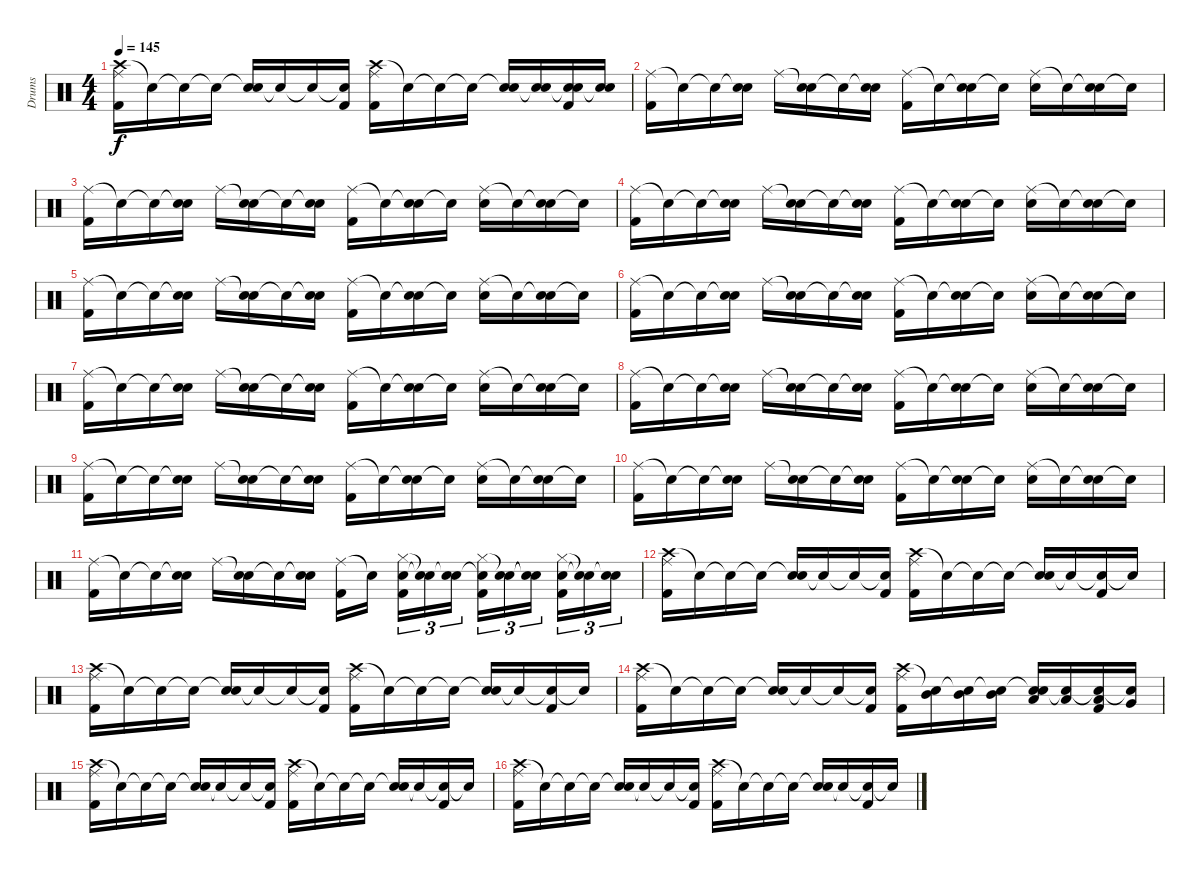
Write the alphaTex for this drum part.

\track ("Drums" "Drums") {instrument percussion}
\staff {score}
\articulation defaults
\ts (4 4)
\tempo 145
\clef neutral
\ks c
("Crash high (hit)" "Ride (middle)" "Kick (hit) 2").16{dy f} "Snare (hit)"{t}.16 "Snare (hit)"{t}.16 "Snare (hit)"{t}.16 ("Snare (hit)"{t} "Electric Snare (hit)").16 "Snare (hit)"{t}.16 "Snare (hit)"{t}.16 ("Snare (hit)"{t} "Kick (hit) 2").16 ("Crash high (hit)" "Ride (middle)" "Kick (hit) 2").16 "Snare (hit)"{t}.16 "Snare (hit)"{t}.16 "Snare (hit)"{t}.16 ("Snare (hit)"{t} "Electric Snare (hit)").16 ("Snare (hit)"{t} "Electric Snare (hit)").16 ("Snare (hit)"{t} "Electric Snare (hit)" "Kick (hit) 2").16 ("Snare (hit)"{t} "Electric Snare (hit)").16 |
("Ride (middle)" "Kick (hit) 2").16 "Snare (hit)"{t}.16 "Snare (hit)"{t}.16 ("Snare (hit)"{t} "Electric Snare (hit)").16 "Ride (middle)".16 ("Snare (hit)"{t} "Electric Snare (hit)").16 "Snare (hit)"{t}.16 ("Snare (hit)"{t} "Electric Snare (hit)").16 ("Ride (middle)" "Kick (hit) 2").16 "Snare (hit)"{t}.16 ("Snare (hit)"{t} "Electric Snare (hit)").16 "Snare (hit)"{t}.16 ("Ride (middle)" "Electric Snare (hit)").16 "Snare (hit)"{t}.16 ("Snare (hit)"{t} "Electric Snare (hit)").16 "Snare (hit)"{t}.16 |
("Ride (middle)" "Kick (hit) 2").16 "Snare (hit)"{t}.16 "Snare (hit)"{t}.16 ("Snare (hit)"{t} "Electric Snare (hit)").16 "Ride (middle)".16 ("Snare (hit)"{t} "Electric Snare (hit)").16 "Snare (hit)"{t}.16 ("Snare (hit)"{t} "Electric Snare (hit)").16 ("Ride (middle)" "Kick (hit) 2").16 "Snare (hit)"{t}.16 ("Snare (hit)"{t} "Electric Snare (hit)").16 "Snare (hit)"{t}.16 ("Ride (middle)" "Electric Snare (hit)").16 "Snare (hit)"{t}.16 ("Snare (hit)"{t} "Electric Snare (hit)").16 "Snare (hit)"{t}.16 |
("Ride (middle)" "Kick (hit) 2").16 "Snare (hit)"{t}.16 "Snare (hit)"{t}.16 ("Snare (hit)"{t} "Electric Snare (hit)").16 "Ride (middle)".16 ("Snare (hit)"{t} "Electric Snare (hit)").16 "Snare (hit)"{t}.16 ("Snare (hit)"{t} "Electric Snare (hit)").16 ("Ride (middle)" "Kick (hit) 2").16 "Snare (hit)"{t}.16 ("Snare (hit)"{t} "Electric Snare (hit)").16 "Snare (hit)"{t}.16 ("Ride (middle)" "Electric Snare (hit)").16 "Snare (hit)"{t}.16 ("Snare (hit)"{t} "Electric Snare (hit)").16 "Snare (hit)"{t}.16 |
("Ride (middle)" "Kick (hit) 2").16 "Snare (hit)"{t}.16 "Snare (hit)"{t}.16 ("Snare (hit)"{t} "Electric Snare (hit)").16 "Ride (middle)".16 ("Snare (hit)"{t} "Electric Snare (hit)").16 "Snare (hit)"{t}.16 ("Snare (hit)"{t} "Electric Snare (hit)").16 ("Ride (middle)" "Kick (hit) 2").16 "Snare (hit)"{t}.16 ("Snare (hit)"{t} "Electric Snare (hit)").16 "Snare (hit)"{t}.16 ("Ride (middle)" "Electric Snare (hit)").16 "Snare (hit)"{t}.16 ("Snare (hit)"{t} "Electric Snare (hit)").16 "Snare (hit)"{t}.16 |
("Ride (middle)" "Kick (hit) 2").16 "Snare (hit)"{t}.16 "Snare (hit)"{t}.16 ("Snare (hit)"{t} "Electric Snare (hit)").16 "Ride (middle)".16 ("Snare (hit)"{t} "Electric Snare (hit)").16 "Snare (hit)"{t}.16 ("Snare (hit)"{t} "Electric Snare (hit)").16 ("Ride (middle)" "Kick (hit) 2").16 "Snare (hit)"{t}.16 ("Snare (hit)"{t} "Electric Snare (hit)").16 "Snare (hit)"{t}.16 ("Ride (middle)" "Electric Snare (hit)").16 "Snare (hit)"{t}.16 ("Snare (hit)"{t} "Electric Snare (hit)").16 "Snare (hit)"{t}.16 |
("Ride (middle)" "Kick (hit) 2").16 "Snare (hit)"{t}.16 "Snare (hit)"{t}.16 ("Snare (hit)"{t} "Electric Snare (hit)").16 "Ride (middle)".16 ("Snare (hit)"{t} "Electric Snare (hit)").16 "Snare (hit)"{t}.16 ("Snare (hit)"{t} "Electric Snare (hit)").16 ("Ride (middle)" "Kick (hit) 2").16 "Snare (hit)"{t}.16 ("Snare (hit)"{t} "Electric Snare (hit)").16 "Snare (hit)"{t}.16 ("Ride (middle)" "Electric Snare (hit)").16 "Snare (hit)"{t}.16 ("Snare (hit)"{t} "Electric Snare (hit)").16 "Snare (hit)"{t}.16 |
("Ride (middle)" "Kick (hit) 2").16 "Snare (hit)"{t}.16 "Snare (hit)"{t}.16 ("Snare (hit)"{t} "Electric Snare (hit)").16 "Ride (middle)".16 ("Snare (hit)"{t} "Electric Snare (hit)").16 "Snare (hit)"{t}.16 ("Snare (hit)"{t} "Electric Snare (hit)").16 ("Ride (middle)" "Kick (hit) 2").16 "Snare (hit)"{t}.16 ("Snare (hit)"{t} "Electric Snare (hit)").16 "Snare (hit)"{t}.16 ("Ride (middle)" "Electric Snare (hit)").16 "Snare (hit)"{t}.16 ("Snare (hit)"{t} "Electric Snare (hit)").16 "Snare (hit)"{t}.16 |
("Ride (middle)" "Kick (hit) 2").16 "Snare (hit)"{t}.16 "Snare (hit)"{t}.16 ("Snare (hit)"{t} "Electric Snare (hit)").16 "Ride (middle)".16 ("Snare (hit)"{t} "Electric Snare (hit)").16 "Snare (hit)"{t}.16 ("Snare (hit)"{t} "Electric Snare (hit)").16 ("Ride (middle)" "Kick (hit) 2").16 "Snare (hit)"{t}.16 ("Snare (hit)"{t} "Electric Snare (hit)").16 "Snare (hit)"{t}.16 ("Ride (middle)" "Electric Snare (hit)").16 "Snare (hit)"{t}.16 ("Snare (hit)"{t} "Electric Snare (hit)").16 "Snare (hit)"{t}.16 |
("Ride (middle)" "Kick (hit) 2").16 "Snare (hit)"{t}.16 "Snare (hit)"{t}.16 ("Snare (hit)"{t} "Electric Snare (hit)").16 "Ride (middle)".16 ("Snare (hit)"{t} "Electric Snare (hit)").16 "Snare (hit)"{t}.16 ("Snare (hit)"{t} "Electric Snare (hit)").16 ("Ride (middle)" "Kick (hit) 2").16 "Snare (hit)"{t}.16 ("Snare (hit)"{t} "Electric Snare (hit)").16 "Snare (hit)"{t}.16 ("Ride (middle)" "Electric Snare (hit)").16 "Snare (hit)"{t}.16 ("Snare (hit)"{t} "Electric Snare (hit)").16 "Snare (hit)"{t}.16 |
("Ride (middle)" "Kick (hit) 2").16 "Snare (hit)"{t}.16 "Snare (hit)"{t}.16 ("Snare (hit)"{t} "Electric Snare (hit)").16 "Ride (middle)".16 ("Snare (hit)"{t} "Electric Snare (hit)").16 "Snare (hit)"{t}.16 ("Snare (hit)"{t} "Electric Snare (hit)").16 ("Ride (middle)" "Kick (hit) 2").16 "Snare (hit)"{t}.16 ("Hi-Hat (closed)" "Electric Snare (hit)" "Kick (hit) 2").16{tu (3 2)} ("Snare (hit)"{t} "Electric Snare (hit)"{t}).16{tu (3 2)} ("Snare (hit)"{t} "Electric Snare (hit)").16{tu (3 2)} ("Hi-Hat (closed)" "Electric Snare (hit)"{t} "Kick (hit) 2").16{tu (3 2)} ("Snare (hit)"{t} "Electric Snare (hit)").16{tu (3 2)} ("Snare (hit)"{t} "Electric Snare (hit)"{t}).16{tu (3 2)} ("Hi-Hat (closed)" "Electric Snare (hit)" "Kick (hit) 2").16{tu (3 2)} ("Snare (hit)"{t} "Electric Snare (hit)"{t}).16{tu (3 2)} ("Snare (hit)"{t} "Electric Snare (hit)").16{tu (3 2)} |
("Crash high (hit)" "Ride (middle)" "Kick (hit) 2").16 "Snare (hit)"{t}.16 "Snare (hit)"{t}.16 "Snare (hit)"{t}.16 ("Snare (hit)"{t} "Electric Snare (hit)").16 "Snare (hit)"{t}.16 "Snare (hit)"{t}.16 ("Snare (hit)"{t} "Kick (hit) 2").16 ("Crash high (hit)" "Ride (middle)" "Kick (hit) 2").16 "Snare (hit)"{t}.16 "Snare (hit)"{t}.16 "Snare (hit)"{t}.16 ("Snare (hit)"{t} "Electric Snare (hit)").16 "Snare (hit)"{t}.16 ("Snare (hit)"{t} "Kick (hit) 2").16 "Snare (hit)"{t}.16 |
("Crash high (hit)" "Ride (middle)" "Kick (hit) 2").16 "Snare (hit)"{t}.16 "Snare (hit)"{t}.16 "Snare (hit)"{t}.16 ("Snare (hit)"{t} "Electric Snare (hit)").16 "Snare (hit)"{t}.16 "Snare (hit)"{t}.16 ("Snare (hit)"{t} "Kick (hit) 2").16 ("Crash high (hit)" "Ride (middle)" "Kick (hit) 2").16 "Snare (hit)"{t}.16 "Snare (hit)"{t}.16 "Snare (hit)"{t}.16 ("Snare (hit)"{t} "Electric Snare (hit)").16 "Snare (hit)"{t}.16 ("Snare (hit)"{t} "Kick (hit) 2").16 "Snare (hit)"{t}.16 |
("Crash high (hit)" "Ride (middle)" "Kick (hit) 2").16 "Snare (hit)"{t}.16 "Snare (hit)"{t}.16 "Snare (hit)"{t}.16 ("Snare (hit)"{t} "Electric Snare (hit)").16 "Snare (hit)"{t}.16 "Snare (hit)"{t}.16 ("Snare (hit)"{t} "Kick (hit) 2").16 ("Crash high (hit)" "Ride (middle)" "Kick (hit) 2").16 ("Snare (hit)"{t} "Mid Tom (hit)").16 ("Snare (hit)"{t} "Mid Tom (hit)").16 ("Snare (hit)"{t} "Mid Tom (hit)").16 ("Snare (hit)"{t} "Low Tom (hit)" "Electric Snare (hit)").16 ("Snare (hit)"{t} "Low Tom (hit)").16 ("Snare (hit)"{t} "Low Tom (hit)" "Kick (hit) 2").16 ("Snare (hit)"{t} "Very Low Tom (hit)").16 |
("Crash high (hit)" "Ride (middle)" "Kick (hit) 2").16 "Snare (hit)"{t}.16 "Snare (hit)"{t}.16 "Snare (hit)"{t}.16 ("Snare (hit)"{t} "Electric Snare (hit)").16 "Snare (hit)"{t}.16 "Snare (hit)"{t}.16 ("Snare (hit)"{t} "Kick (hit) 2").16 ("Crash high (hit)" "Ride (middle)" "Kick (hit) 2").16 "Snare (hit)"{t}.16 "Snare (hit)"{t}.16 "Snare (hit)"{t}.16 ("Snare (hit)"{t} "Electric Snare (hit)").16 "Snare (hit)"{t}.16 ("Snare (hit)"{t} "Kick (hit) 2").16 "Snare (hit)"{t}.16 |
("Crash high (hit)" "Ride (middle)" "Kick (hit) 2").16 "Snare (hit)"{t}.16 "Snare (hit)"{t}.16 "Snare (hit)"{t}.16 ("Snare (hit)"{t} "Electric Snare (hit)").16 "Snare (hit)"{t}.16 "Snare (hit)"{t}.16 ("Snare (hit)"{t} "Kick (hit) 2").16 ("Crash high (hit)" "Ride (middle)" "Kick (hit) 2").16 "Snare (hit)"{t}.16 "Snare (hit)"{t}.16 "Snare (hit)"{t}.16 ("Snare (hit)"{t} "Electric Snare (hit)").16 "Snare (hit)"{t}.16 ("Snare (hit)"{t} "Kick (hit) 2").16 "Snare (hit)"{t}.16
